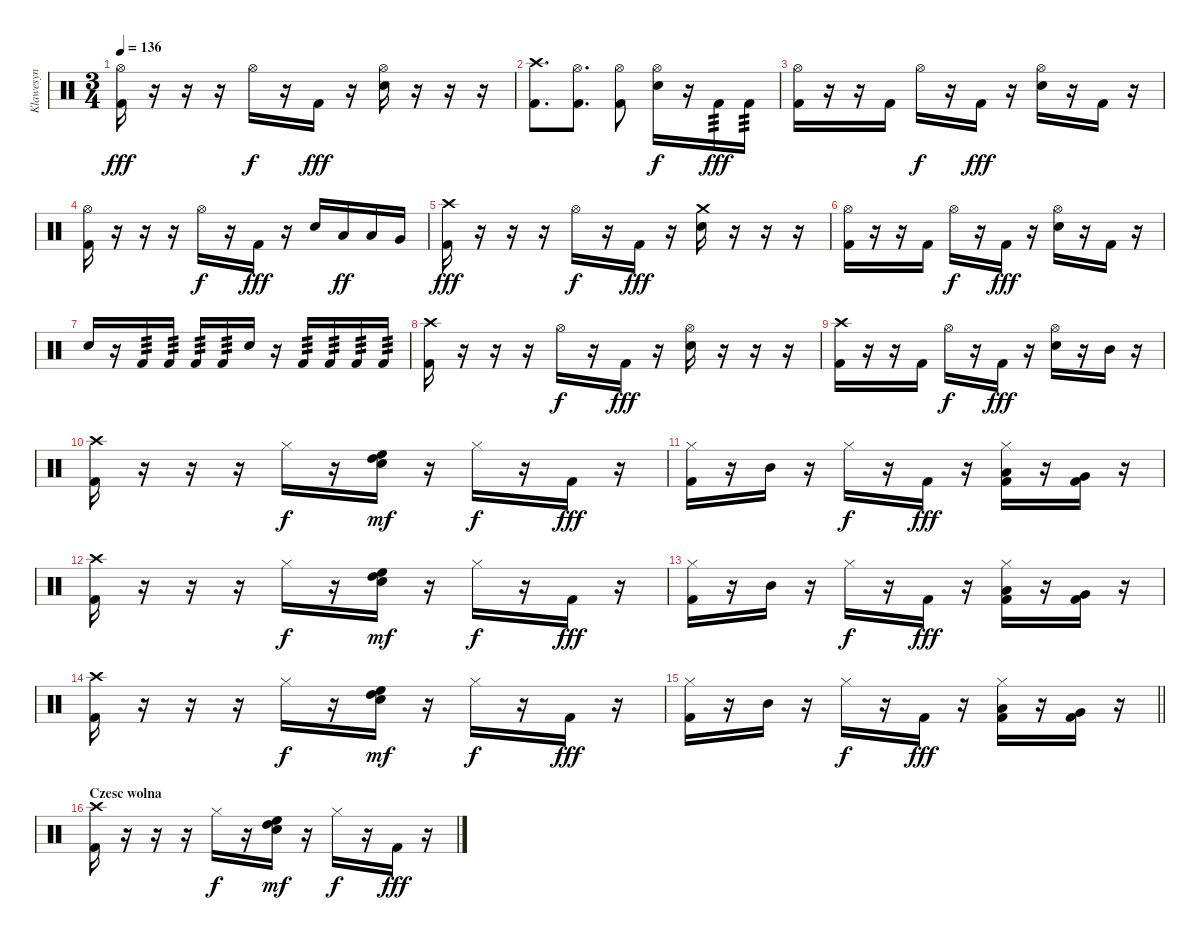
\track ("Klawesyn" "Klawesyn") {instrument percussion}
\staff {score}
\articulation defaults
\ts (3 4)
\tempo 136
\clef neutral
\ks c
("Hi-Hat (open)" "Kick (hit) 2").16{dy fff} r.16 r.16 r.16 "Hi-Hat (open)".16{dy f} r.16 "Kick (hit) 2".16{dy fff} r.16 ("Hi-Hat (open)" "Snare (hit) 2").16 r.16 r.16 r.16 |
("Crash high (hit)" "Kick (hit) 2").8{d} ("Hi-Hat (open)" "Kick (hit) 2").8{d} ("Hi-Hat (open)" "Kick (hit) 2").8 ("Hi-Hat (open)" "Snare (hit) 2").16{dy f} r.16 "Kick (hit) 2".16{tp 3 dy fff} "Kick (hit) 2".16{tp 3} |
("Hi-Hat (open)" "Kick (hit) 2").16 r.16 r.16 "Kick (hit) 2".16 "Hi-Hat (open)".16{dy f} r.16 "Kick (hit) 2".16{dy fff} r.16 ("Hi-Hat (open)" "Snare (hit) 2").16 r.16 "Kick (hit) 2".16 r.16 |
("Hi-Hat (open)" "Kick (hit) 2").16 r.16 r.16 r.16 "Hi-Hat (open)".16{dy f} r.16 "Kick (hit) 2".16{dy fff} r.16 "Snare (hit) 2".16 "Low Tom (hit)".16{dy ff} "Low Tom (hit)".16 "Very Low Tom (hit)".16 |
("Crash high (hit)" "Kick (hit) 2").16{dy fff} r.16 r.16 r.16 "Hi-Hat (open)".16{dy f} r.16 "Kick (hit) 2".16{dy fff} r.16 ("Crash medium (hit)" "Snare (hit) 2").16 r.16 r.16 r.16 |
("Hi-Hat (open)" "Kick (hit) 2").16 r.16 r.16 "Kick (hit) 2".16 "Hi-Hat (open)".16{dy f} r.16 "Kick (hit) 2".16{dy fff} r.16 ("Hi-Hat (open)" "Snare (hit) 2").16 r.16 "Kick (hit) 2".16 r.16 |
"Snare (hit) 2".16 r.16 "Kick (hit) 2".16{tp 3} "Kick (hit) 2".16{tp 3} "Kick (hit) 2".16{tp 3} "Kick (hit) 2".16{tp 3} "Snare (hit) 2".16 r.16 "Kick (hit) 2".16{tp 3} "Kick (hit) 2".16{tp 3} "Kick (hit) 2".16{tp 3} "Kick (hit) 2".16{tp 3} |
("Crash high (hit)" "Kick (hit) 2").16 r.16 r.16 r.16 "Hi-Hat (open)".16{dy f} r.16 "Kick (hit) 2".16{dy fff} r.16 ("Hi-Hat (open)" "Snare (hit) 2").16 r.16 r.16 r.16 |
("Crash high (hit)" "Kick (hit) 2").16 r.16 r.16 "Kick (hit) 2".16 "Hi-Hat (open)".16{dy f} r.16 "Kick (hit) 2".16{dy fff} r.16 ("Hi-Hat (open)" "Snare (hit) 2").16 r.16 "Mid Tom (hit)".16 r.16 |
("Crash high (hit)" "Kick (hit) 2").16 r.16 r.16 r.16 "Hi-Hat (closed)".16{dy f} r.16 ("Snare (hit) 2" "High Floor Tom (hit)" "High Tom (hit)").16{dy mf} r.16 "Hi-Hat (closed)".16{dy f} r.16 "Kick (hit) 2".16{dy fff} r.16 |
("Hi-Hat (closed)" "Kick (hit) 2").16 r.16 "Mid Tom (hit)".16 r.16 "Hi-Hat (closed)".16{dy f} r.16 "Kick (hit) 2".16{dy fff} r.16 ("Hi-Hat (closed)" "Low Tom (hit)" "Kick (hit) 2").16 r.16 ("Very Low Tom (hit)" "Kick (hit) 2").16 r.16 |
("Crash high (hit)" "Kick (hit) 2").16 r.16 r.16 r.16 "Hi-Hat (closed)".16{dy f} r.16 ("Snare (hit) 2" "High Floor Tom (hit)" "High Tom (hit)").16{dy mf} r.16 "Hi-Hat (closed)".16{dy f} r.16 "Kick (hit) 2".16{dy fff} r.16 |
("Hi-Hat (closed)" "Kick (hit) 2").16 r.16 "Mid Tom (hit)".16 r.16 "Hi-Hat (closed)".16{dy f} r.16 "Kick (hit) 2".16{dy fff} r.16 ("Hi-Hat (closed)" "Low Tom (hit)" "Kick (hit) 2").16 r.16 ("Very Low Tom (hit)" "Kick (hit) 2").16 r.16 |
("Crash high (hit)" "Kick (hit) 2").16 r.16 r.16 r.16 "Hi-Hat (closed)".16{dy f} r.16 ("Snare (hit) 2" "High Floor Tom (hit)" "High Tom (hit)").16{dy mf} r.16 "Hi-Hat (closed)".16{dy f} r.16 "Kick (hit) 2".16{dy fff} r.16 |
\barLineRight lightlight
("Hi-Hat (closed)" "Kick (hit) 2").16 r.16 "Mid Tom (hit)".16 r.16 "Hi-Hat (closed)".16{dy f} r.16 "Kick (hit) 2".16{dy fff} r.16 ("Hi-Hat (closed)" "Low Tom (hit)" "Kick (hit) 2").16 r.16 ("Very Low Tom (hit)" "Kick (hit) 2").16 r.16 |
\section ("" "Czesc wolna")
("Crash high (hit)" "Kick (hit) 2").16 r.16 r.16 r.16 "Hi-Hat (closed)".16{dy f} r.16 ("Snare (hit) 2" "High Floor Tom (hit)" "High Tom (hit)").16{dy mf} r.16 "Hi-Hat (closed)".16{dy f} r.16 "Kick (hit) 2".16{dy fff} r.16
